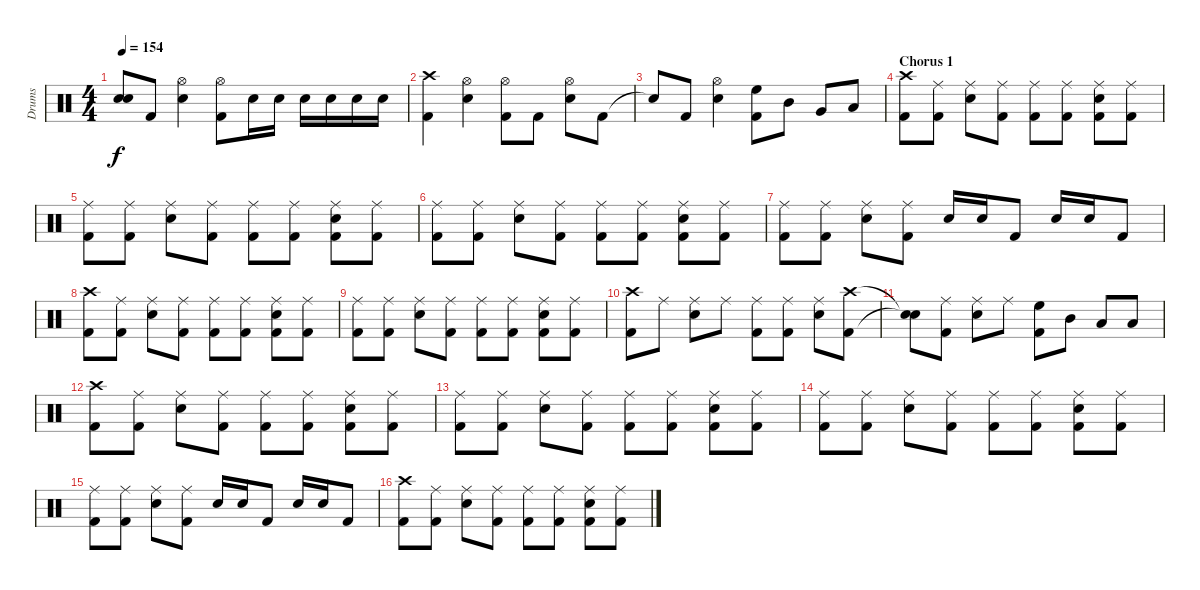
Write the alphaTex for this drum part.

\track ("Drums" "Drums") {instrument percussion}
\staff {score}
\articulation defaults
\ts (4 4)
\tempo 154
\clef neutral
\ks c
("Snare (hit)"{t} "Snare (hit)"{t}).8{dy f} "Kick (hit) 2".8 ("Hi-Hat (open)" "Electric Snare (hit)").4 ("Hi-Hat (open)" "Kick (hit) 2").8 "Electric Snare (hit)".16 "Electric Snare (hit)".16 "Electric Snare (hit)".16 "Electric Snare (hit)".16 "Electric Snare (hit)".16 "Electric Snare (hit)".16 |
("Crash high (hit)" "Kick (hit) 2").4 ("Hi-Hat (open)" "Electric Snare (hit)").4 ("Hi-Hat (open)" "Kick (hit) 2").8 "Kick (hit) 2".8 ("Hi-Hat (open)" "Electric Snare (hit)").8 "Kick (hit) 2".8 |
"Snare (hit)"{t}.8 "Kick (hit) 2".8 ("Hi-Hat (open)" "Electric Snare (hit)").4 ("High Floor Tom (hit)" "Kick (hit) 2").8 "Mid Tom (hit)".8 "Very Low Tom (hit)".8 "Low Floor Tom (hit)".8 |
\section ("" "Chorus 1")
("Crash high (hit)" "Kick (hit) 2").8 ("Ride (middle)" "Kick (hit) 2").8 ("Electric Snare (hit)" "Ride (middle)").8 ("Ride (middle)" "Kick (hit) 2").8 ("Ride (middle)" "Kick (hit) 2").8 ("Ride (middle)" "Kick (hit) 2").8 ("Electric Snare (hit)" "Ride (middle)" "Kick (hit) 2").8 ("Ride (middle)" "Kick (hit) 2").8 |
("Ride (middle)" "Kick (hit) 2").8 ("Ride (middle)" "Kick (hit) 2").8 ("Electric Snare (hit)" "Ride (middle)").8 ("Ride (middle)" "Kick (hit) 2").8 ("Ride (middle)" "Kick (hit) 2").8 ("Ride (middle)" "Kick (hit) 2").8 ("Electric Snare (hit)" "Ride (middle)" "Kick (hit) 2").8 ("Ride (middle)" "Kick (hit) 2").8 |
("Ride (middle)" "Kick (hit) 2").8 ("Ride (middle)" "Kick (hit) 2").8 ("Electric Snare (hit)" "Ride (middle)").8 ("Ride (middle)" "Kick (hit) 2").8 ("Ride (middle)" "Kick (hit) 2").8 ("Ride (middle)" "Kick (hit) 2").8 ("Electric Snare (hit)" "Ride (middle)" "Kick (hit) 2").8 ("Ride (middle)" "Kick (hit) 2").8 |
("Ride (middle)" "Kick (hit) 2").8 ("Ride (middle)" "Kick (hit) 2").8 ("Electric Snare (hit)" "Ride (middle)").8 ("Ride (middle)" "Kick (hit) 2").8 "Electric Snare (hit)".16 "Electric Snare (hit)".16 "Kick (hit) 2".8 "Electric Snare (hit)".16 "Electric Snare (hit)".16 "Kick (hit) 2".8 |
("Crash high (hit)" "Kick (hit) 2").8 ("Ride (middle)" "Kick (hit) 2").8 ("Electric Snare (hit)" "Ride (middle)").8 ("Ride (middle)" "Kick (hit) 2").8 ("Ride (middle)" "Kick (hit) 2").8 ("Ride (middle)" "Kick (hit) 2").8 ("Electric Snare (hit)" "Ride (middle)" "Kick (hit) 2").8 ("Ride (middle)" "Kick (hit) 2").8 |
("Ride (middle)" "Kick (hit) 2").8 ("Ride (middle)" "Kick (hit) 2").8 ("Electric Snare (hit)" "Ride (middle)").8 ("Ride (middle)" "Kick (hit) 2").8 ("Ride (middle)" "Kick (hit) 2").8 ("Ride (middle)" "Kick (hit) 2").8 ("Electric Snare (hit)" "Ride (middle)" "Kick (hit) 2").8 ("Ride (middle)" "Kick (hit) 2").8 |
("Crash high (hit)" "Kick (hit) 2").8 "Ride (middle)".8 ("Ride (middle)" "Electric Snare (hit)").8 "Ride (middle)".8 ("Ride (middle)" "Kick (hit) 2").8 ("Ride (middle)" "Kick (hit) 2").8 ("Ride (middle)" "Electric Snare (hit)").8 ("Crash high (hit)" "Kick (hit) 2").8 |
("Snare (hit)"{t} "Snare (hit)"{t}).8 ("Ride (middle)" "Kick (hit) 2").8 ("Ride (middle)" "Electric Snare (hit)").8 "Ride (middle)".8 ("High Floor Tom (hit)" "Kick (hit) 2").8 "Mid Tom (hit)".8 "Low Tom (hit)".8 "Low Floor Tom (hit)".8 |
("Crash high (hit)" "Kick (hit) 2").8 ("Ride (middle)" "Kick (hit) 2").8 ("Electric Snare (hit)" "Ride (middle)").8 ("Ride (middle)" "Kick (hit) 2").8 ("Ride (middle)" "Kick (hit) 2").8 ("Ride (middle)" "Kick (hit) 2").8 ("Electric Snare (hit)" "Ride (middle)" "Kick (hit) 2").8 ("Ride (middle)" "Kick (hit) 2").8 |
("Ride (middle)" "Kick (hit) 2").8 ("Ride (middle)" "Kick (hit) 2").8 ("Electric Snare (hit)" "Ride (middle)").8 ("Ride (middle)" "Kick (hit) 2").8 ("Ride (middle)" "Kick (hit) 2").8 ("Ride (middle)" "Kick (hit) 2").8 ("Electric Snare (hit)" "Ride (middle)" "Kick (hit) 2").8 ("Ride (middle)" "Kick (hit) 2").8 |
("Ride (middle)" "Kick (hit) 2").8 ("Ride (middle)" "Kick (hit) 2").8 ("Electric Snare (hit)" "Ride (middle)").8 ("Ride (middle)" "Kick (hit) 2").8 ("Ride (middle)" "Kick (hit) 2").8 ("Ride (middle)" "Kick (hit) 2").8 ("Electric Snare (hit)" "Ride (middle)" "Kick (hit) 2").8 ("Ride (middle)" "Kick (hit) 2").8 |
("Ride (middle)" "Kick (hit) 2").8 ("Ride (middle)" "Kick (hit) 2").8 ("Electric Snare (hit)" "Ride (middle)").8 ("Ride (middle)" "Kick (hit) 2").8 "Electric Snare (hit)".16 "Electric Snare (hit)".16 "Kick (hit) 2".8 "Electric Snare (hit)".16 "Electric Snare (hit)".16 "Kick (hit) 2".8 |
("Crash high (hit)" "Kick (hit) 2").8 ("Ride (middle)" "Kick (hit) 2").8 ("Electric Snare (hit)" "Ride (middle)").8 ("Ride (middle)" "Kick (hit) 2").8 ("Ride (middle)" "Kick (hit) 2").8 ("Ride (middle)" "Kick (hit) 2").8 ("Electric Snare (hit)" "Ride (middle)" "Kick (hit) 2").8 ("Ride (middle)" "Kick (hit) 2").8
